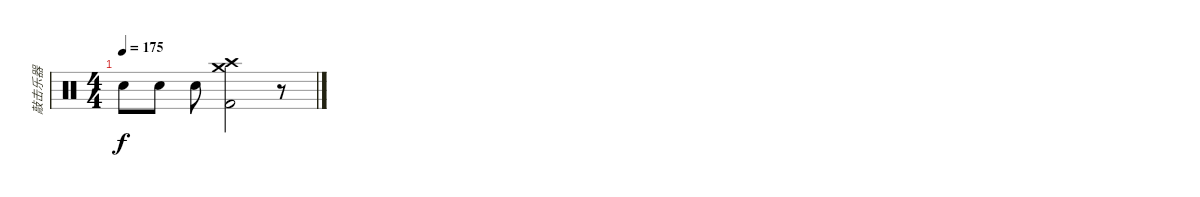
\track ("敲击乐器" "敲击乐器") {instrument percussion}
\staff {score}
\articulation defaults
\ts (4 4)
\tempo 175
\clef neutral
\ks c "Electric Snare (hit)".8{dy f} "Electric Snare (hit)".8 "Electric Snare (hit)".8
("Kick (hit) 2" "Crash medium (hit)" "Crash high (hit)").2 r.8
